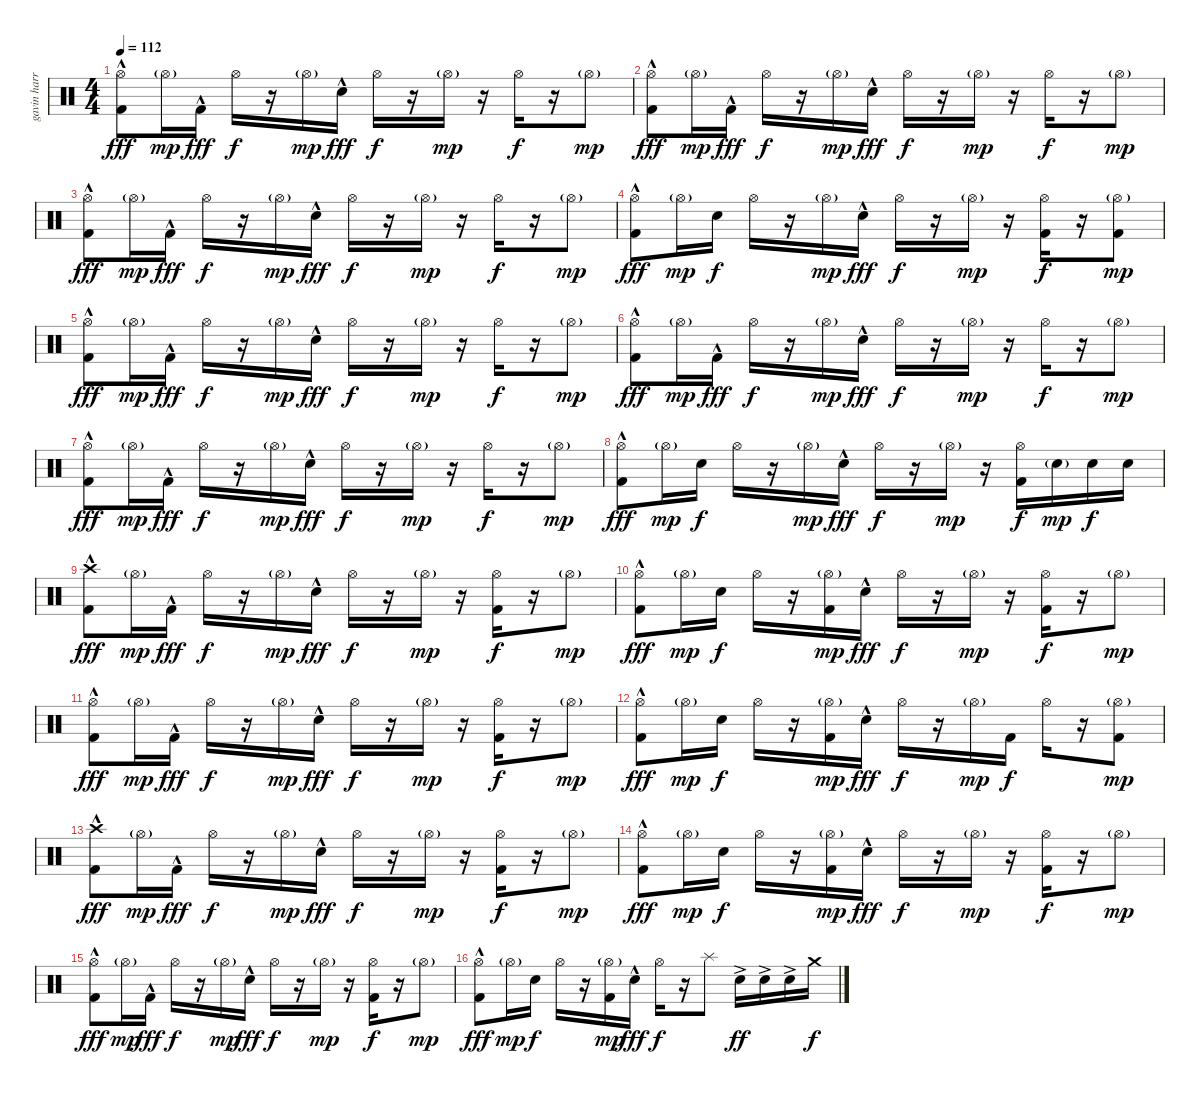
\track ("gavin harrison" "gavin harr") {instrument percussion}
\staff {score}
\articulation defaults
\ts (4 4)
\tempo 112
\clef neutral
\ks c
("Hi-Hat (open)" "Kick (hit) 2"{hac}).8{dy fff} "Hi-Hat (open)"{g}.16{dy mp} "Kick (hit) 2"{hac}.16{dy fff} "Hi-Hat (open)".16{dy f} r.16 "Hi-Hat (open)"{g}.16{dy mp} "Electric Snare (hit)"{hac}.16{dy fff} "Hi-Hat (open)".16{dy f} r.16 "Hi-Hat (open)"{g}.16{dy mp} r.16 "Hi-Hat (open)".16{dy f} r.16 "Hi-Hat (open)"{g}.8{dy mp} |
("Hi-Hat (open)" "Kick (hit) 2"{hac}).8{dy fff} "Hi-Hat (open)"{g}.16{dy mp} "Kick (hit) 2"{hac}.16{dy fff} "Hi-Hat (open)".16{dy f} r.16 "Hi-Hat (open)"{g}.16{dy mp} "Electric Snare (hit)"{hac}.16{dy fff} "Hi-Hat (open)".16{dy f} r.16 "Hi-Hat (open)"{g}.16{dy mp} r.16 "Hi-Hat (open)".16{dy f} r.16 "Hi-Hat (open)"{g}.8{dy mp} |
("Hi-Hat (open)" "Kick (hit) 2"{hac}).8{dy fff} "Hi-Hat (open)"{g}.16{dy mp} "Kick (hit) 2"{hac}.16{dy fff} "Hi-Hat (open)".16{dy f} r.16 "Hi-Hat (open)"{g}.16{dy mp} "Electric Snare (hit)"{hac}.16{dy fff} "Hi-Hat (open)".16{dy f} r.16 "Hi-Hat (open)"{g}.16{dy mp} r.16 "Hi-Hat (open)".16{dy f} r.16 "Hi-Hat (open)"{g}.8{dy mp} |
("Hi-Hat (open)" "Kick (hit) 2"{hac}).8{dy fff} "Hi-Hat (open)"{g}.16{dy mp} "Electric Snare (hit)".16{dy f} "Hi-Hat (open)".16 r.16 "Hi-Hat (open)"{g}.16{dy mp} "Electric Snare (hit)"{hac}.16{dy fff} "Hi-Hat (open)".16{dy f} r.16 "Hi-Hat (open)"{g}.16{dy mp} r.16 ("Hi-Hat (open)" "Kick (hit) 2").16{dy f} r.16 ("Hi-Hat (open)"{g} "Kick (hit) 2").8{dy mp} |
("Hi-Hat (open)" "Kick (hit) 2"{hac}).8{dy fff} "Hi-Hat (open)"{g}.16{dy mp} "Kick (hit) 2"{hac}.16{dy fff} "Hi-Hat (open)".16{dy f} r.16 "Hi-Hat (open)"{g}.16{dy mp} "Electric Snare (hit)"{hac}.16{dy fff} "Hi-Hat (open)".16{dy f} r.16 "Hi-Hat (open)"{g}.16{dy mp} r.16 "Hi-Hat (open)".16{dy f} r.16 "Hi-Hat (open)"{g}.8{dy mp} |
("Hi-Hat (open)" "Kick (hit) 2"{hac}).8{dy fff} "Hi-Hat (open)"{g}.16{dy mp} "Kick (hit) 2"{hac}.16{dy fff} "Hi-Hat (open)".16{dy f} r.16 "Hi-Hat (open)"{g}.16{dy mp} "Electric Snare (hit)"{hac}.16{dy fff} "Hi-Hat (open)".16{dy f} r.16 "Hi-Hat (open)"{g}.16{dy mp} r.16 "Hi-Hat (open)".16{dy f} r.16 "Hi-Hat (open)"{g}.8{dy mp} |
("Hi-Hat (open)" "Kick (hit) 2"{hac}).8{dy fff} "Hi-Hat (open)"{g}.16{dy mp} "Kick (hit) 2"{hac}.16{dy fff} "Hi-Hat (open)".16{dy f} r.16 "Hi-Hat (open)"{g}.16{dy mp} "Electric Snare (hit)"{hac}.16{dy fff} "Hi-Hat (open)".16{dy f} r.16 "Hi-Hat (open)"{g}.16{dy mp} r.16 "Hi-Hat (open)".16{dy f} r.16 "Hi-Hat (open)"{g}.8{dy mp} |
("Hi-Hat (open)" "Kick (hit) 2"{hac}).8{dy fff} "Hi-Hat (open)"{g}.16{dy mp} "Electric Snare (hit)".16{dy f} "Hi-Hat (open)".16 r.16 "Hi-Hat (open)"{g}.16{dy mp} "Electric Snare (hit)"{hac}.16{dy fff} "Hi-Hat (open)".16{dy f} r.16 "Hi-Hat (open)"{g}.16{dy mp} r.16 ("Hi-Hat (open)" "Kick (hit) 2").16{dy f} "Electric Snare (hit)"{g}.16{dy mp} "Electric Snare (hit)".16{dy f} "Electric Snare (hit)".16 |
("Crash high (hit)" "Kick (hit) 2"{hac}).8{dy fff} "Hi-Hat (open)"{g}.16{dy mp} "Kick (hit) 2"{hac}.16{dy fff} "Hi-Hat (open)".16{dy f} r.16 "Hi-Hat (open)"{g}.16{dy mp} "Electric Snare (hit)"{hac}.16{dy fff} "Hi-Hat (open)".16{dy f} r.16 "Hi-Hat (open)"{g}.16{dy mp} r.16 ("Hi-Hat (open)" "Kick (hit) 2").16{dy f} r.16 "Hi-Hat (open)"{g}.8{dy mp} |
("Hi-Hat (open)" "Kick (hit) 2"{hac}).8{dy fff} "Hi-Hat (open)"{g}.16{dy mp} "Electric Snare (hit)".16{dy f} "Hi-Hat (open)".16 r.16 ("Hi-Hat (open)"{g} "Kick (hit) 2").16{dy mp} "Electric Snare (hit)"{hac}.16{dy fff} "Hi-Hat (open)".16{dy f} r.16 "Hi-Hat (open)"{g}.16{dy mp} r.16 ("Hi-Hat (open)" "Kick (hit) 2").16{dy f} r.16 "Hi-Hat (open)"{g}.8{dy mp} |
("Hi-Hat (open)" "Kick (hit) 2"{hac}).8{dy fff} "Hi-Hat (open)"{g}.16{dy mp} "Kick (hit) 2"{hac}.16{dy fff} "Hi-Hat (open)".16{dy f} r.16 "Hi-Hat (open)"{g}.16{dy mp} "Electric Snare (hit)"{hac}.16{dy fff} "Hi-Hat (open)".16{dy f} r.16 "Hi-Hat (open)"{g}.16{dy mp} r.16 ("Hi-Hat (open)" "Kick (hit) 2").16{dy f} r.16 "Hi-Hat (open)"{g}.8{dy mp} |
("Hi-Hat (open)" "Kick (hit) 2"{hac}).8{dy fff} "Hi-Hat (open)"{g}.16{dy mp} "Electric Snare (hit)".16{dy f} "Hi-Hat (open)".16 r.16 ("Hi-Hat (open)"{g} "Kick (hit) 2").16{dy mp} "Electric Snare (hit)"{hac}.16{dy fff} "Hi-Hat (open)".16{dy f} r.16 "Hi-Hat (open)"{g}.16{dy mp} "Kick (hit) 2".16{dy f} "Hi-Hat (open)".16 r.16 ("Hi-Hat (open)"{g} "Kick (hit) 2").8{dy mp} |
("Crash high (hit)" "Kick (hit) 2"{hac}).8{dy fff} "Hi-Hat (open)"{g}.16{dy mp} "Kick (hit) 2"{hac}.16{dy fff} "Hi-Hat (open)".16{dy f} r.16 "Hi-Hat (open)"{g}.16{dy mp} "Electric Snare (hit)"{hac}.16{dy fff} "Hi-Hat (open)".16{dy f} r.16 "Hi-Hat (open)"{g}.16{dy mp} r.16 ("Hi-Hat (open)" "Kick (hit) 2").16{dy f} r.16 "Hi-Hat (open)"{g}.8{dy mp} |
("Hi-Hat (open)" "Kick (hit) 2"{hac}).8{dy fff} "Hi-Hat (open)"{g}.16{dy mp} "Electric Snare (hit)".16{dy f} "Hi-Hat (open)".16 r.16 ("Hi-Hat (open)"{g} "Kick (hit) 2").16{dy mp} "Electric Snare (hit)"{hac}.16{dy fff} "Hi-Hat (open)".16{dy f} r.16 "Hi-Hat (open)"{g}.16{dy mp} r.16 ("Hi-Hat (open)" "Kick (hit) 2").16{dy f} r.16 "Hi-Hat (open)"{g}.8{dy mp} |
("Hi-Hat (open)" "Kick (hit) 2"{hac}).8{dy fff} "Hi-Hat (open)"{g}.16{dy mp} "Kick (hit) 2"{hac}.16{dy fff} "Hi-Hat (open)".16{dy f} r.16 "Hi-Hat (open)"{g}.16{dy mp} "Electric Snare (hit)"{hac}.16{dy fff} "Hi-Hat (open)".16{dy f} r.16 "Hi-Hat (open)"{g}.16{dy mp} r.16 ("Hi-Hat (open)" "Kick (hit) 2").16{dy f} r.16 "Hi-Hat (open)"{g}.8{dy mp} |
("Hi-Hat (open)" "Kick (hit) 2"{hac}).8{dy fff} "Hi-Hat (open)"{g}.16{dy mp} "Electric Snare (hit)".16{dy f} "Hi-Hat (open)".16 r.16 ("Hi-Hat (open)"{g} "Kick (hit) 2").16{dy mp} "Electric Snare (hit)"{hac}.16{dy fff} "Hi-Hat (open)".16{dy f} r.16 "Splash (hit)".8 "Electric Snare (hit)"{ac}.16{dy ff} "Electric Snare (hit)"{ac}.16 "Electric Snare (hit)"{ac}.16 "Crash medium (hit)".16{dy f}
